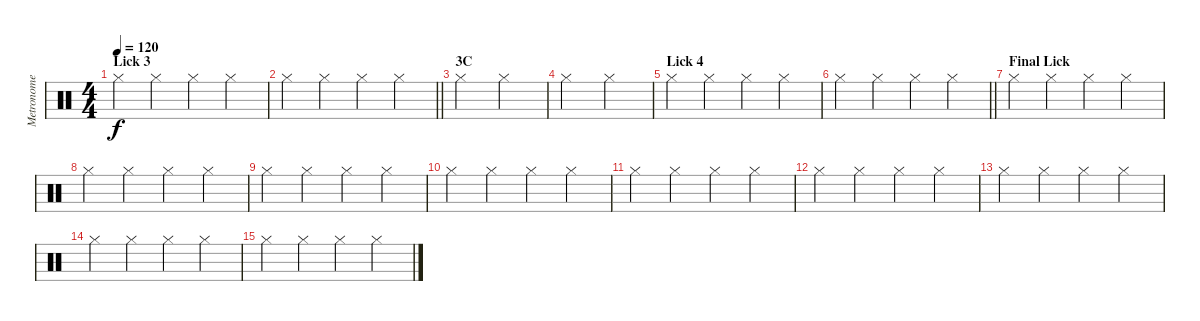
\track ("Metronome" "Metronome") {instrument percussion}
\staff {score}
\articulation defaults
\ts (4 4)
\section ("" "Lick 3")
\tempo 120
\clef neutral
\ks c "Hi-Hat (closed)".4{dy f} "Hi-Hat (closed)".4 "Hi-Hat (closed)".4 "Hi-Hat (closed)".4
|
\barLineRight lightlight "Hi-Hat (closed)".4 "Hi-Hat (closed)".4 "Hi-Hat (closed)".4 "Hi-Hat (closed)".4
|
\section ("" "3C")
"Hi-Hat (closed)".2 "Hi-Hat (closed)".2 |
"Hi-Hat (closed)".2 "Hi-Hat (closed)".2 |
\section ("" "Lick 4")
"Hi-Hat (closed)".4 "Hi-Hat (closed)".4 "Hi-Hat (closed)".4 "Hi-Hat (closed)".4 |
\barLineRight lightlight "Hi-Hat (closed)".4 "Hi-Hat (closed)".4 "Hi-Hat (closed)".4 "Hi-Hat (closed)".4
|
\section ("" "Final Lick")
"Hi-Hat (closed)".4 "Hi-Hat (closed)".4 "Hi-Hat (closed)".4 "Hi-Hat (closed)".4 |
"Hi-Hat (closed)".4 "Hi-Hat (closed)".4 "Hi-Hat (closed)".4 "Hi-Hat (closed)".4 |
"Hi-Hat (closed)".4 "Hi-Hat (closed)".4 "Hi-Hat (closed)".4 "Hi-Hat (closed)".4 |
"Hi-Hat (closed)".4 "Hi-Hat (closed)".4 "Hi-Hat (closed)".4 "Hi-Hat (closed)".4 |
"Hi-Hat (closed)".4 "Hi-Hat (closed)".4 "Hi-Hat (closed)".4 "Hi-Hat (closed)".4 |
"Hi-Hat (closed)".4 "Hi-Hat (closed)".4 "Hi-Hat (closed)".4 "Hi-Hat (closed)".4 |
"Hi-Hat (closed)".4 "Hi-Hat (closed)".4 "Hi-Hat (closed)".4 "Hi-Hat (closed)".4 |
"Hi-Hat (closed)".4 "Hi-Hat (closed)".4 "Hi-Hat (closed)".4 "Hi-Hat (closed)".4 |
"Hi-Hat (closed)".4 "Hi-Hat (closed)".4 "Hi-Hat (closed)".4 "Hi-Hat (closed)".4
